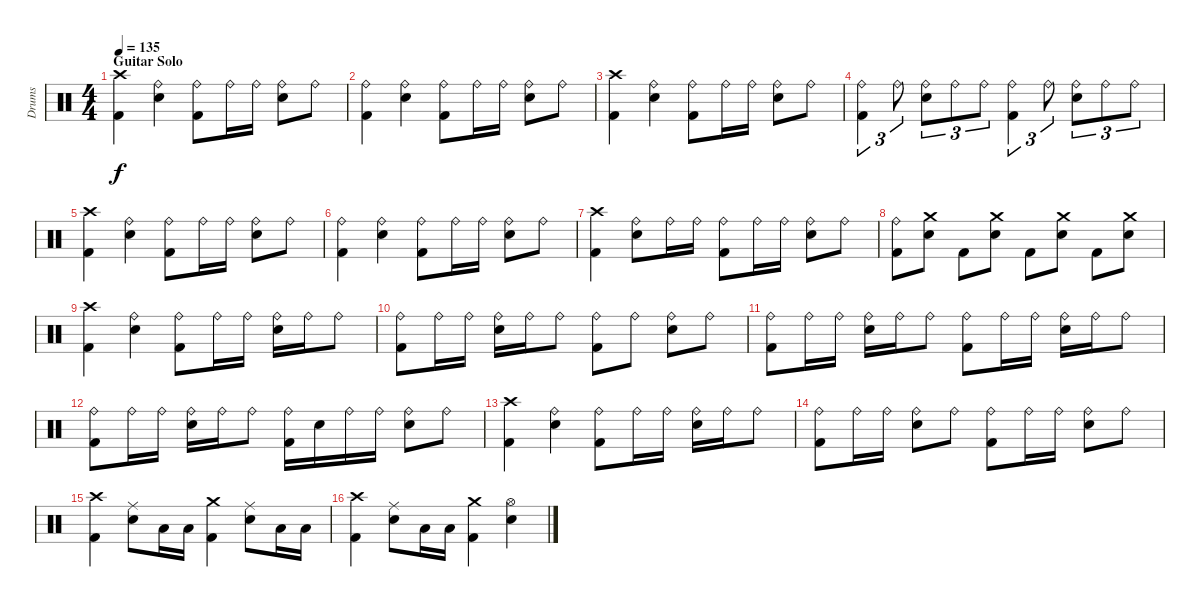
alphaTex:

\track ("Drums" "Drums") {instrument percussion}
\staff {score}
\articulation defaults
\ts (4 4)
\section ("" "Guitar Solo")
\tempo 135
\clef neutral
\ks c
("Crash high (hit)" "Kick (hit) 2").4{dy f} ("Ride (bell)" "Snare (hit) 2").4 ("Ride (bell)" "Kick (hit) 2").8 "Ride (bell)".16 "Ride (bell)".16 ("Ride (bell)" "Snare (hit) 2").8 "Ride (bell)".8 |
("Ride (bell)" "Kick (hit) 2").4 ("Ride (bell)" "Snare (hit) 2").4 ("Ride (bell)" "Kick (hit) 2").8 "Ride (bell)".16 "Ride (bell)".16 ("Ride (bell)" "Snare (hit) 2").8 "Ride (bell)".8 |
("Crash high (hit)" "Kick (hit) 2").4 ("Ride (bell)" "Snare (hit) 2").4 ("Ride (bell)" "Kick (hit) 2").8 "Ride (bell)".16 "Ride (bell)".16 ("Ride (bell)" "Snare (hit) 2").8 "Ride (bell)".8 |
("Ride (bell)" "Kick (hit) 2").4{tu (3 2)} "Ride (bell)".8{tu (3 2)} ("Ride (bell)" "Snare (hit) 2").8{tu (3 2)} "Ride (bell)".8{tu (3 2)} "Ride (bell)".8{tu (3 2)} ("Ride (bell)" "Kick (hit) 2").4{tu (3 2)} "Ride (bell)".8{tu (3 2)} ("Ride (bell)" "Snare (hit) 2").8{tu (3 2)} "Ride (bell)".8{tu (3 2)} "Ride (bell)".8{tu (3 2)} |
("Crash high (hit)" "Kick (hit) 2").4 ("Ride (bell)" "Snare (hit) 2").4 ("Ride (bell)" "Kick (hit) 2").8 "Ride (bell)".16 "Ride (bell)".16 ("Ride (bell)" "Snare (hit) 2").8 "Ride (bell)".8 |
("Ride (bell)" "Kick (hit) 2").4 ("Ride (bell)" "Snare (hit) 2").4 ("Ride (bell)" "Kick (hit) 2").8 "Ride (bell)".16 "Ride (bell)".16 ("Ride (bell)" "Snare (hit) 2").8 "Ride (bell)".8 |
("Crash high (hit)" "Kick (hit) 2").4 ("Ride (bell)" "Snare (hit) 2").8 "Ride (bell)".16 "Ride (bell)".16 ("Ride (bell)" "Kick (hit) 2").8 "Ride (bell)".16 "Ride (bell)".16 ("Ride (bell)" "Snare (hit) 2").8 "Ride (bell)".8 |
("Ride (bell)" "Kick (hit) 2").8 ("Crash medium (hit)" "Snare (hit) 2").8 "Kick (hit) 2".8 ("Crash medium (hit)" "Snare (hit) 2").8 "Kick (hit) 2".8 ("Crash medium (hit)" "Snare (hit) 2").8 "Kick (hit) 2".8 ("Crash medium (hit)" "Snare (hit) 2").8 |
("Crash high (hit)" "Kick (hit) 2").4 ("Ride (bell)" "Snare (hit) 2").4 ("Ride (bell)" "Kick (hit) 2").8 "Ride (bell)".16 "Ride (bell)".16 ("Ride (bell)" "Snare (hit) 2").16 "Ride (bell)".16 "Ride (bell)".8 |
("Ride (bell)" "Kick (hit) 2").8 "Ride (bell)".16 "Ride (bell)".16 ("Ride (bell)" "Snare (hit) 2").16 "Ride (bell)".16 "Ride (bell)".8 ("Ride (bell)" "Kick (hit) 2").8 "Ride (bell)".8 ("Ride (bell)" "Snare (hit) 2").8 "Ride (bell)".8 |
("Ride (bell)" "Kick (hit) 2").8 "Ride (bell)".16 "Ride (bell)".16 ("Ride (bell)" "Snare (hit) 2").16 "Ride (bell)".16 "Ride (bell)".8 ("Ride (bell)" "Kick (hit) 2").8 "Ride (bell)".16 "Ride (bell)".16 ("Ride (bell)" "Snare (hit) 2").16 "Ride (bell)".16 "Ride (bell)".8 |
("Ride (bell)" "Kick (hit) 2").8 "Ride (bell)".16 "Ride (bell)".16 ("Ride (bell)" "Snare (hit) 2").16 "Ride (bell)".16 "Ride (bell)".8 ("Ride (bell)" "Kick (hit) 2").16 "Snare (hit) 2".16 "Ride (bell)".16 "Ride (bell)".16 ("Ride (bell)" "Snare (hit) 2").8 "Ride (bell)".8 |
("Crash high (hit)" "Kick (hit) 2").4 ("Ride (bell)" "Snare (hit) 2").4 ("Ride (bell)" "Kick (hit) 2").8 "Ride (bell)".16 "Ride (bell)".16 ("Ride (bell)" "Snare (hit) 2").16 "Ride (bell)".16 "Ride (bell)".8 |
("Ride (bell)" "Kick (hit) 2").8 "Ride (bell)".16 "Ride (bell)".16 ("Ride (bell)" "Snare (hit) 2").8 "Ride (bell)".8 ("Ride (bell)" "Kick (hit) 2").8 "Ride (bell)".16 "Ride (bell)".16 ("Ride (bell)" "Snare (hit) 2").8 "Ride (bell)".8 |
("Crash high (hit)" "Kick (hit) 2").4 ("Ride (middle)" "Snare (hit) 2").8 "Low Tom (hit)".16 "Low Tom (hit)".16 ("Crash medium (hit)" "Kick (hit) 2").4 ("Ride (middle)" "Snare (hit) 2").8 "Low Tom (hit)".16 "Low Tom (hit)".16 |
("Crash high (hit)" "Kick (hit) 2").4 ("Ride (middle)" "Snare (hit) 2").8 "Low Tom (hit)".16 "Low Tom (hit)".16 ("Crash medium (hit)" "Kick (hit) 2").4 ("Hi-Hat (open)" "Snare (hit) 2").4
